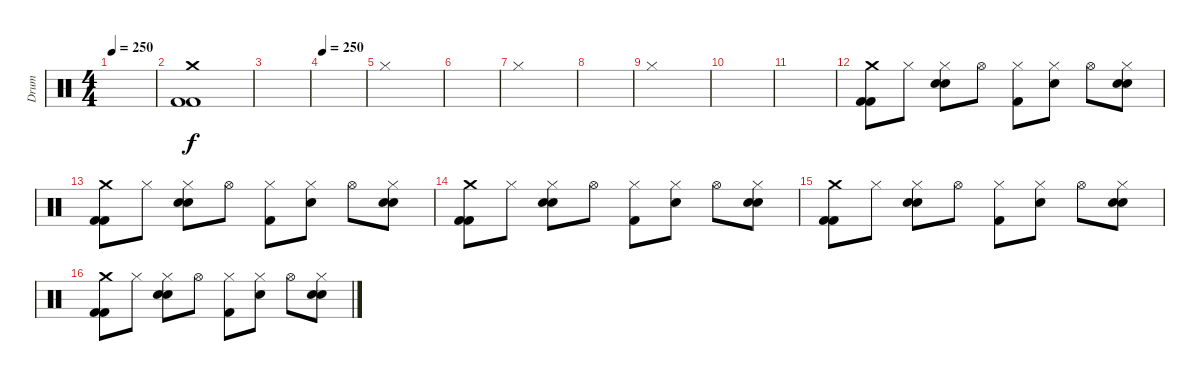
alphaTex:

\track ("Drum" "Drum") {instrument percussion}
\staff {score}
\articulation defaults
\ts (4 4)
\tempo 250
\clef neutral
\ks c
|
("Crash medium (hit)" "Kick (hit) 2" "Kick (hit) 2").1 |
|
\tempo 250
|
"Hi-Hat (closed)".1 |
|
"Hi-Hat (closed)".1 |
|
"Hi-Hat (closed)".1 |
|
|
("Crash medium (hit)" "Kick (hit) 2" "Kick (hit) 2").8 "Hi-Hat (closed)".8 ("Hi-Hat (closed)" "Snare (hit) 2" "Snare (hit) 2").8 "Hi-Hat (open)".8 ("Hi-Hat (closed)" "Kick (hit) 2").8 ("Hi-Hat (closed)" "Snare (hit) 2").8 "Hi-Hat (open)".8 ("Hi-Hat (closed)" "Snare (hit) 2" "Snare (hit) 2").8 |
("Crash medium (hit)" "Kick (hit) 2" "Kick (hit) 2").8 "Hi-Hat (closed)".8 ("Hi-Hat (closed)" "Snare (hit) 2" "Snare (hit) 2").8 "Hi-Hat (open)".8 ("Hi-Hat (closed)" "Kick (hit) 2").8 ("Hi-Hat (closed)" "Snare (hit) 2").8 "Hi-Hat (open)".8 ("Hi-Hat (closed)" "Snare (hit) 2" "Snare (hit) 2").8 |
("Crash medium (hit)" "Kick (hit) 2" "Kick (hit) 2").8 "Hi-Hat (closed)".8 ("Hi-Hat (closed)" "Snare (hit) 2" "Snare (hit) 2").8 "Hi-Hat (open)".8 ("Hi-Hat (closed)" "Kick (hit) 2").8 ("Hi-Hat (closed)" "Snare (hit) 2").8 "Hi-Hat (open)".8 ("Hi-Hat (closed)" "Snare (hit) 2" "Snare (hit) 2").8 |
("Crash medium (hit)" "Kick (hit) 2" "Kick (hit) 2").8 "Hi-Hat (closed)".8 ("Hi-Hat (closed)" "Snare (hit) 2" "Snare (hit) 2").8 "Hi-Hat (open)".8 ("Hi-Hat (closed)" "Kick (hit) 2").8 ("Hi-Hat (closed)" "Snare (hit) 2").8 "Hi-Hat (open)".8 ("Hi-Hat (closed)" "Snare (hit) 2" "Snare (hit) 2").8 |
("Crash medium (hit)" "Kick (hit) 2" "Kick (hit) 2").8 "Hi-Hat (closed)".8 ("Hi-Hat (closed)" "Snare (hit) 2" "Snare (hit) 2").8 "Hi-Hat (open)".8 ("Hi-Hat (closed)" "Kick (hit) 2").8 ("Hi-Hat (closed)" "Snare (hit) 2").8 "Hi-Hat (open)".8 ("Hi-Hat (closed)" "Snare (hit) 2" "Snare (hit) 2").8
